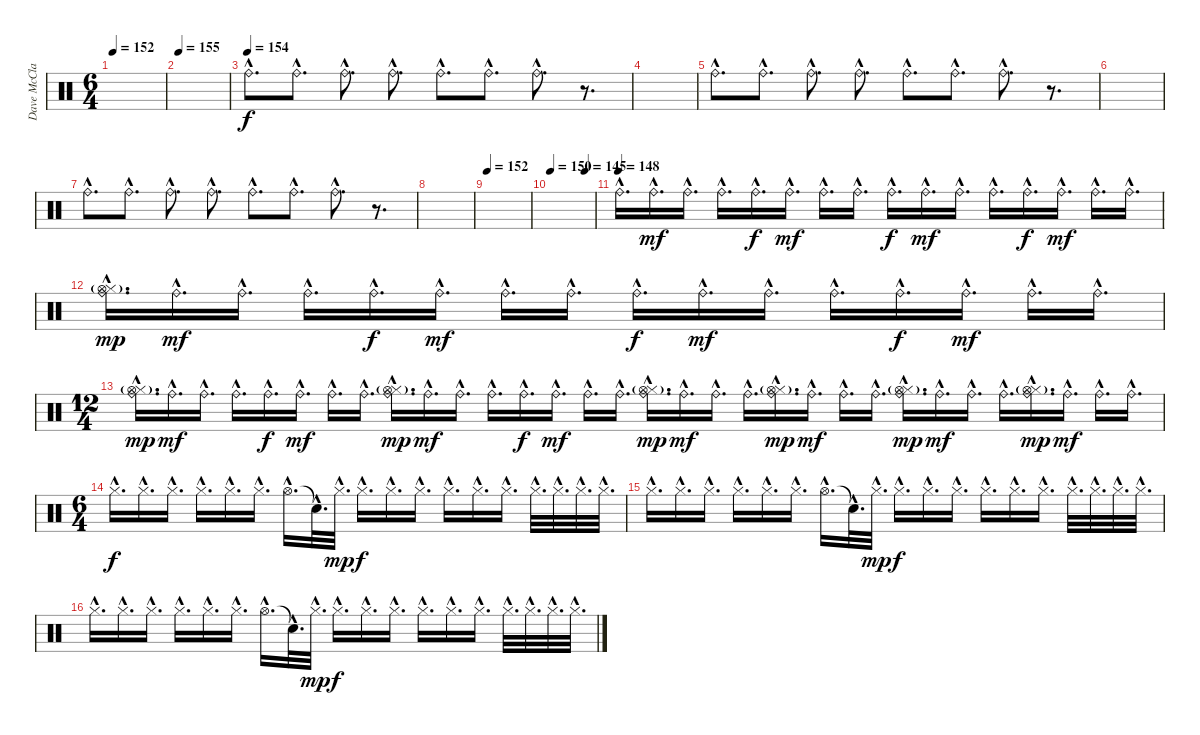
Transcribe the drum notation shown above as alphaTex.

\track ("Dave McClain" "Dave McCla") {instrument percussion}
\staff {score}
\articulation defaults
\ts (6 4)
\tempo 152
\clef neutral
\ks c
|
\tempo 155
|
\tempo (154)
"Ride (bell)"{hac}.8{d dy f} "Ride (bell)"{hac}.8{d} "Ride (bell)"{hac}.8{d} "Ride (bell)"{hac}.8{d} "Ride (bell)"{hac}.8{d} "Ride (bell)"{hac}.8{d} "Ride (bell)"{hac}.8{d} r.8{d} |
|
"Ride (bell)"{hac}.8{d} "Ride (bell)"{hac}.8{d} "Ride (bell)"{hac}.8{d} "Ride (bell)"{hac}.8{d} "Ride (bell)"{hac}.8{d} "Ride (bell)"{hac}.8{d} "Ride (bell)"{hac}.8{d} r.8{d} |
|
"Ride (bell)"{hac}.8{d} "Ride (bell)"{hac}.8{d} "Ride (bell)"{hac}.8{d} "Ride (bell)"{hac}.8{d} "Ride (bell)"{hac}.8{d} "Ride (bell)"{hac}.8{d} "Ride (bell)"{hac}.8{d} r.8{d} |
|
\tempo 152
|
\tempo 150
\tempo (145 0.7916666666666666)
|
\tempo (148)
"Ride (bell)"{hac}.16{d} "Ride (bell)"{hac}.16{d dy mf} "Ride (bell)"{hac}.16{d} "Ride (bell)"{hac}.16{d} "Ride (bell)"{hac}.16{d dy f} "Ride (bell)"{hac}.16{d dy mf} "Ride (bell)"{hac}.16{d} "Ride (bell)"{hac}.16{d} "Ride (bell)"{hac}.16{d dy f} "Ride (bell)"{hac}.16{d dy mf} "Ride (bell)"{hac}.16{d} "Ride (bell)"{hac}.16{d} "Ride (bell)"{hac}.16{d dy f} "Ride (bell)"{hac}.16{d dy mf} "Ride (bell)"{hac}.16{d} "Ride (bell)"{hac}.16{d} |
("Ride (bell)"{hac} "Hi-Hat (closed)"{hac} "Hi-Hat (open)"{g hac}).16{d dy mp} "Ride (bell)"{hac}.16{d dy mf} "Ride (bell)"{hac}.16{d} "Ride (bell)"{hac}.16{d} "Ride (bell)"{hac}.16{d dy f} "Ride (bell)"{hac}.16{d dy mf} "Ride (bell)"{hac}.16{d} "Ride (bell)"{hac}.16{d} "Ride (bell)"{hac}.16{d dy f} "Ride (bell)"{hac}.16{d dy mf} "Ride (bell)"{hac}.16{d} "Ride (bell)"{hac}.16{d} "Ride (bell)"{hac}.16{d dy f} "Ride (bell)"{hac}.16{d dy mf} "Ride (bell)"{hac}.16{d} "Ride (bell)"{hac}.16{d} |
\ts (12 4)
("Ride (bell)"{hac} "Hi-Hat (closed)"{hac} "Hi-Hat (open)"{g hac}).16{d dy mp} "Ride (bell)"{hac}.16{d dy mf} "Ride (bell)"{hac}.16{d} "Ride (bell)"{hac}.16{d} "Ride (bell)"{hac}.16{d dy f} "Ride (bell)"{hac}.16{d dy mf} "Ride (bell)"{hac}.16{d} "Ride (bell)"{hac}.16{d} ("Ride (bell)"{hac} "Hi-Hat (closed)"{hac} "Hi-Hat (open)"{g hac}).16{d dy mp} "Ride (bell)"{hac}.16{d dy mf} "Ride (bell)"{hac}.16{d} "Ride (bell)"{hac}.16{d} "Ride (bell)"{hac}.16{d dy f} "Ride (bell)"{hac}.16{d dy mf} "Ride (bell)"{hac}.16{d} "Ride (bell)"{hac}.16{d} ("Ride (bell)"{hac} "Hi-Hat (closed)"{hac} "Hi-Hat (open)"{g hac}).16{d dy mp} "Ride (bell)"{hac}.16{d dy mf} "Ride (bell)"{hac}.16{d} "Ride (bell)"{hac}.16{d} ("Ride (bell)"{hac} "Hi-Hat (closed)"{hac} "Hi-Hat (open)"{g hac}).16{d dy mp} "Ride (bell)"{hac}.16{d dy mf} "Ride (bell)"{hac}.16{d} "Ride (bell)"{hac}.16{d} ("Ride (bell)"{hac} "Hi-Hat (closed)"{hac} "Hi-Hat (open)"{g hac}).16{d dy mp} "Ride (bell)"{hac}.16{d dy mf} "Ride (bell)"{hac}.16{d} "Ride (bell)"{hac}.16{d} ("Ride (bell)"{hac} "Hi-Hat (closed)"{hac} "Hi-Hat (open)"{g hac}).16{d dy mp} "Ride (bell)"{hac}.16{d dy mf} "Ride (bell)"{hac}.16{d} "Ride (bell)"{hac}.16{d} |
\ts (6 4)
"Hi-Hat (closed)"{hac}.16{d dy f} "Hi-Hat (closed)"{hac}.16{d} "Hi-Hat (closed)"{hac}.16{d} "Hi-Hat (closed)"{hac}.16{d} "Hi-Hat (closed)"{hac}.16{d} "Hi-Hat (closed)"{hac}.16{d} "Hi-Hat (open)"{hac}.16{d} "Snare (hit)"{hac t}.32{d} "Hi-Hat (closed)"{hac}.32{d dy mp} "Hi-Hat (closed)"{hac}.16{d dy f} "Hi-Hat (closed)"{hac}.16{d} "Hi-Hat (closed)"{hac}.16{d} "Hi-Hat (closed)"{hac}.16{d} "Hi-Hat (closed)"{hac}.16{d} "Hi-Hat (closed)"{hac}.16{d} "Hi-Hat (closed)"{hac}.32{d} "Hi-Hat (closed)"{hac}.32{d} "Hi-Hat (closed)"{hac}.32{d} "Hi-Hat (closed)"{hac}.32{d} |
"Hi-Hat (closed)"{hac}.16{d} "Hi-Hat (closed)"{hac}.16{d} "Hi-Hat (closed)"{hac}.16{d} "Hi-Hat (closed)"{hac}.16{d} "Hi-Hat (closed)"{hac}.16{d} "Hi-Hat (closed)"{hac}.16{d} "Hi-Hat (open)"{hac}.16{d} "Snare (hit)"{hac t}.32{d} "Hi-Hat (closed)"{hac}.32{d dy mp} "Hi-Hat (closed)"{hac}.16{d dy f} "Hi-Hat (closed)"{hac}.16{d} "Hi-Hat (closed)"{hac}.16{d} "Hi-Hat (closed)"{hac}.16{d} "Hi-Hat (closed)"{hac}.16{d} "Hi-Hat (closed)"{hac}.16{d} "Hi-Hat (closed)"{hac}.32{d} "Hi-Hat (closed)"{hac}.32{d} "Hi-Hat (closed)"{hac}.32{d} "Hi-Hat (closed)"{hac}.32{d} |
"Hi-Hat (closed)"{hac}.16{d} "Hi-Hat (closed)"{hac}.16{d} "Hi-Hat (closed)"{hac}.16{d} "Hi-Hat (closed)"{hac}.16{d} "Hi-Hat (closed)"{hac}.16{d} "Hi-Hat (closed)"{hac}.16{d} "Hi-Hat (open)"{hac}.16{d} "Snare (hit)"{hac t}.32{d} "Hi-Hat (closed)"{hac}.32{d dy mp} "Hi-Hat (closed)"{hac}.16{d dy f} "Hi-Hat (closed)"{hac}.16{d} "Hi-Hat (closed)"{hac}.16{d} "Hi-Hat (closed)"{hac}.16{d} "Hi-Hat (closed)"{hac}.16{d} "Hi-Hat (closed)"{hac}.16{d} "Hi-Hat (closed)"{hac}.32{d} "Hi-Hat (closed)"{hac}.32{d} "Hi-Hat (closed)"{hac}.32{d} "Hi-Hat (closed)"{hac}.32{d}
